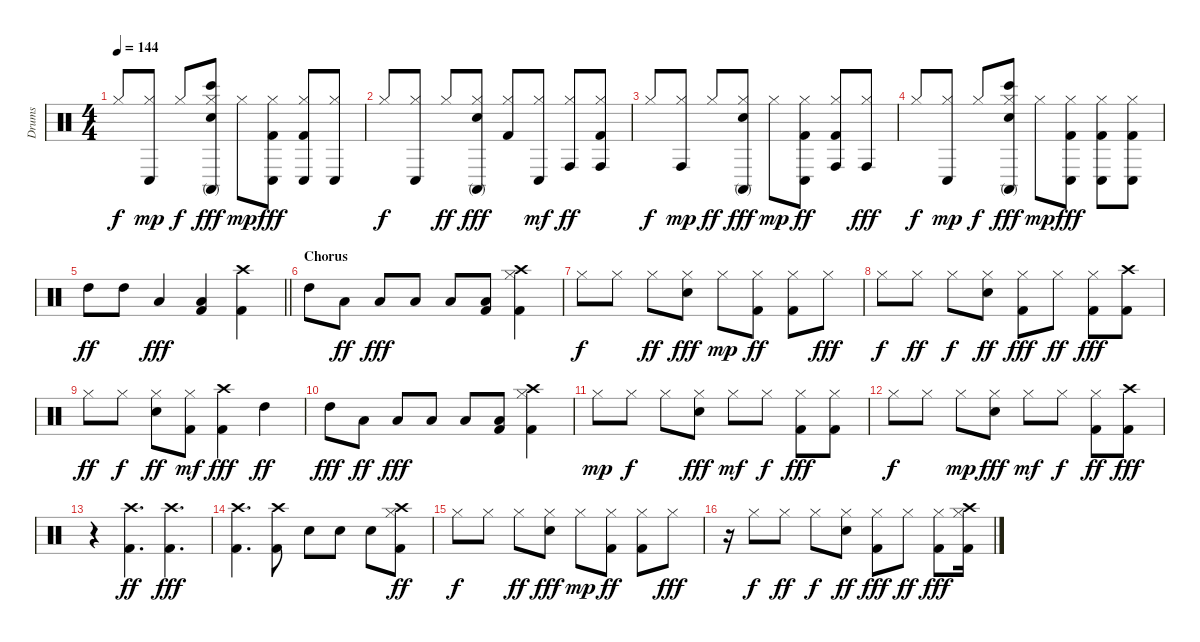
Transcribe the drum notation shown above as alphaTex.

\track ("Drums" "Drums") {instrument percussion}
\staff {score}
\articulation defaults
\ts (4 4)
\tempo 144
\clef neutral
\ks c "Hi-Hat (closed)".8{dy f}
("Conga low (hit)" "Hi-Hat (closed)").8{dy mp} "Hi-Hat (closed)".8{dy f} ("Bongo High (hit)" "Snare (hit) 2" "Conga high (mute)" "Hi-Hat (closed)").8{dy fff} "Hi-Hat (closed)".8{dy mp} ("Conga low (hit)" "Kick (hit) 2" "Hi-Hat (closed)").8{dy fff} ("Conga low (hit)" "Kick (hit) 2" "Hi-Hat (closed)").8 ("Conga low (hit)" "Hi-Hat (closed)").8 |
"Hi-Hat (closed)".8{dy f} ("Conga low (hit)" "Hi-Hat (closed)").8 "Hi-Hat (closed)".8{dy ff} ("Conga high (mute)" "Snare (hit) 2" "Hi-Hat (closed)").8{dy fff} ("Kick (hit) 2" "Hi-Hat (closed)").8 ("Conga low (hit)" "Hi-Hat (closed)").8{dy mf} ("Conga high (hit)" "Hi-Hat (closed)").8{dy ff} ("Conga high (hit)" "Kick (hit) 2" "Hi-Hat (closed)").8 |
"Hi-Hat (closed)".8{dy f} ("Conga high (hit)" "Hi-Hat (closed)").8{dy mp} "Hi-Hat (closed)".8{dy ff} ("Conga high (mute)" "Snare (hit) 2" "Hi-Hat (closed)").8{dy fff} "Hi-Hat (closed)".8{dy mp} ("Conga low (hit)" "Kick (hit) 2" "Hi-Hat (closed)").8{dy ff} ("Conga high (hit)" "Kick (hit) 2" "Hi-Hat (closed)").8 ("Conga high (hit)" "Hi-Hat (closed)").8{dy fff} |
"Hi-Hat (closed)".8{dy f} ("Conga low (hit)" "Hi-Hat (closed)").8{dy mp} "Hi-Hat (closed)".8{dy f} ("Bongo High (hit)" "Snare (hit) 2" "Conga high (mute)" "Hi-Hat (closed)").8{dy fff} "Hi-Hat (closed)".8{dy mp} ("Conga low (hit)" "Kick (hit) 2" "Hi-Hat (closed)").8{dy fff} ("Conga low (hit)" "Kick (hit) 2" "Hi-Hat (closed)").8 ("Conga low (hit)" "Kick (hit) 2" "Hi-Hat (closed)").8 |
\barLineRight lightlight "High Tom (hit)".8{dy ff} "High Tom (hit)".8 "Low Tom (hit)".4{dy fff}
("Low Tom (hit)" "Kick (hit) 2").4 ("Kick (hit) 2" "Crash high (hit)").4 |
\section ("" "Chorus")
"High Tom (hit)".8 "Low Tom (hit)".8{dy ff} "Low Floor Tom (hit)".8{dy fff} "Low Floor Tom (hit)".8 "Low Floor Tom (hit)".8 ("Low Floor Tom (hit)" "Kick (hit) 2").8 ("Crash high (hit)" "Kick (hit) 2" "Hi-Hat (closed)").4 |
"Hi-Hat (closed)".8{dy f} "Hi-Hat (closed)".8 "Hi-Hat (closed)".8{dy ff} ("Snare (hit) 2" "Hi-Hat (closed)").8{dy fff} "Hi-Hat (closed)".8{dy mp} ("Kick (hit) 2" "Hi-Hat (closed)").8{dy ff} ("Kick (hit) 2" "Hi-Hat (closed)").8 "Hi-Hat (closed)".8{dy fff} |
"Hi-Hat (closed)".8{dy f} "Hi-Hat (closed)".8{dy ff} "Hi-Hat (closed)".8{dy f} ("Snare (hit) 2" "Hi-Hat (closed)").8{dy ff} ("Kick (hit) 2" "Hi-Hat (closed)").8{dy fff} "Hi-Hat (closed)".8{dy ff} ("Kick (hit) 2" "Hi-Hat (closed)").8{dy fff} ("Crash high (hit)" "Kick (hit) 2").8 |
"Hi-Hat (closed)".8{dy ff} "Hi-Hat (closed)".8{dy f} ("Snare (hit) 2" "Hi-Hat (closed)").8{dy ff} ("Kick (hit) 2" "Hi-Hat (closed)").8{dy mf} ("Crash high (hit)" "Kick (hit) 2").4{dy fff} "High Tom (hit)".4{dy ff} |
"High Tom (hit)".8{dy fff} "Low Tom (hit)".8{dy ff} "Low Floor Tom (hit)".8{dy fff} "Low Floor Tom (hit)".8 "Low Floor Tom (hit)".8 ("Low Floor Tom (hit)" "Kick (hit) 2").8 ("Crash high (hit)" "Kick (hit) 2" "Hi-Hat (closed)").4 |
"Hi-Hat (closed)".8{dy mp} "Hi-Hat (closed)".8{dy f} "Hi-Hat (closed)".8 ("Snare (hit) 2" "Hi-Hat (closed)").8{dy fff} "Hi-Hat (closed)".8{dy mf} "Hi-Hat (closed)".8{dy f} ("Kick (hit) 2" "Hi-Hat (closed)").8{dy fff} ("Kick (hit) 2" "Hi-Hat (closed)").8 |
"Hi-Hat (closed)".8{dy f} "Hi-Hat (closed)".8 "Hi-Hat (closed)".8{dy mp} ("Snare (hit) 2" "Hi-Hat (closed)").8{dy fff} "Hi-Hat (closed)".8{dy mf} "Hi-Hat (closed)".8{dy f} ("Kick (hit) 2" "Hi-Hat (closed)").8{dy ff} ("Crash high (hit)" "Kick (hit) 2").8{dy fff} |
r.4 ("Kick (hit) 2" "Crash high (hit)").4{d dy ff} ("Crash high (hit)" "Kick (hit) 2").4{d dy fff} |
("Crash high (hit)" "Kick (hit) 2").4{d} ("Crash high (hit)" "Kick (hit) 2").8 "Snare (hit) 2".8 "Snare (hit) 2".8 "Snare (hit) 2".8 ("Crash high (hit)" "Kick (hit) 2" "Hi-Hat (closed)").8{dy ff} |
"Hi-Hat (closed)".8{dy f} "Hi-Hat (closed)".8 "Hi-Hat (closed)".8{dy ff} ("Snare (hit) 2" "Hi-Hat (closed)").8{dy fff} "Hi-Hat (closed)".8{dy mp} ("Kick (hit) 2" "Hi-Hat (closed)").8{dy ff} ("Kick (hit) 2" "Hi-Hat (closed)").8 "Hi-Hat (closed)".8{dy fff} |
r.16 "Hi-Hat (closed)".8{dy f} "Hi-Hat (closed)".8{dy ff} "Hi-Hat (closed)".8{dy f} ("Snare (hit) 2" "Hi-Hat (closed)").8{dy ff} ("Kick (hit) 2" "Hi-Hat (closed)").8{dy fff} "Hi-Hat (closed)".8{dy ff} ("Kick (hit) 2" "Hi-Hat (closed)").8{dy fff} ("Crash high (hit)" "Kick (hit) 2" "Hi-Hat (closed)").16
